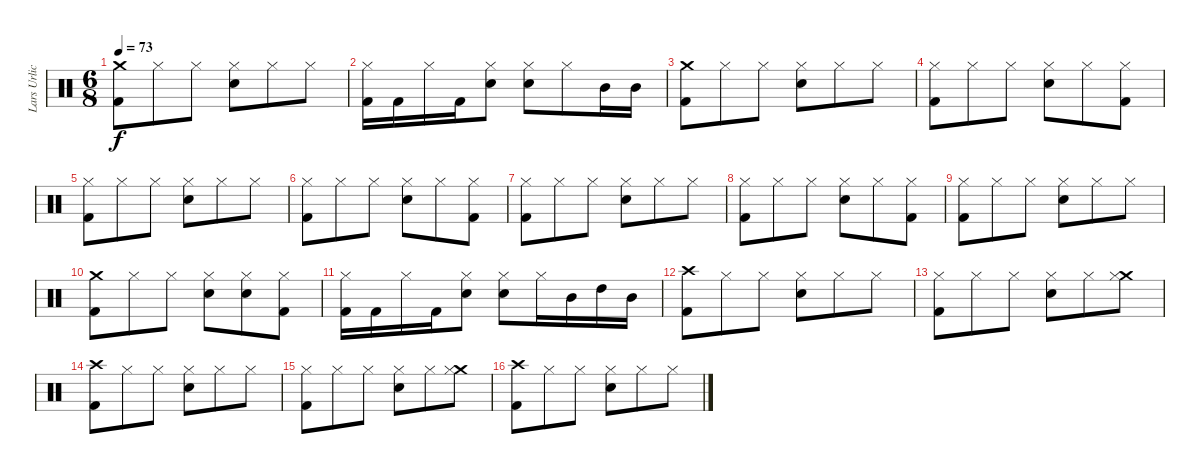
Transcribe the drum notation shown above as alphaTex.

\track ("Lars Urlich" "Lars Urlic") {instrument percussion}
\staff {score}
\articulation defaults
\ts (6 8)
\tempo 73
\clef neutral
\ks c
("Crash medium (hit)" "Kick (hit) 2").8{dy f} "Hi-Hat (closed)".8 "Hi-Hat (closed)".8 ("Hi-Hat (closed)" "Snare (hit) 2").8 "Hi-Hat (closed)".8 "Hi-Hat (closed)".8 |
("Hi-Hat (closed)" "Kick (hit) 2").16 "Kick (hit) 2".16 "Hi-Hat (closed)".16 "Kick (hit) 2".16 ("Hi-Hat (closed)" "Snare (hit) 2").8 ("Hi-Hat (closed)" "Snare (hit) 2").8 "Hi-Hat (closed)".8 "Mid Tom (hit)".16 "Mid Tom (hit)".16 |
("Crash medium (hit)" "Kick (hit) 2").8 "Hi-Hat (closed)".8 "Hi-Hat (closed)".8 ("Hi-Hat (closed)" "Snare (hit) 2").8 "Hi-Hat (closed)".8 "Hi-Hat (closed)".8 |
("Hi-Hat (closed)" "Kick (hit) 2").8 "Hi-Hat (closed)".8 "Hi-Hat (closed)".8 ("Hi-Hat (closed)" "Snare (hit) 2").8 "Hi-Hat (closed)".8 ("Hi-Hat (closed)" "Kick (hit) 2").8 |
("Hi-Hat (closed)" "Kick (hit) 2").8 "Hi-Hat (closed)".8 "Hi-Hat (closed)".8 ("Hi-Hat (closed)" "Snare (hit) 2").8 "Hi-Hat (closed)".8 "Hi-Hat (closed)".8 |
("Hi-Hat (closed)" "Kick (hit) 2").8 "Hi-Hat (closed)".8 "Hi-Hat (closed)".8 ("Hi-Hat (closed)" "Snare (hit) 2").8 "Hi-Hat (closed)".8 ("Hi-Hat (closed)" "Kick (hit) 2").8 |
("Hi-Hat (closed)" "Kick (hit) 2").8 "Hi-Hat (closed)".8 "Hi-Hat (closed)".8 ("Hi-Hat (closed)" "Snare (hit) 2").8 "Hi-Hat (closed)".8 "Hi-Hat (closed)".8 |
("Hi-Hat (closed)" "Kick (hit) 2").8 "Hi-Hat (closed)".8 "Hi-Hat (closed)".8 ("Hi-Hat (closed)" "Snare (hit) 2").8 "Hi-Hat (closed)".8 ("Hi-Hat (closed)" "Kick (hit) 2").8 |
("Hi-Hat (closed)" "Kick (hit) 2").8 "Hi-Hat (closed)".8 "Hi-Hat (closed)".8 ("Hi-Hat (closed)" "Snare (hit) 2").8 "Hi-Hat (closed)".8 "Hi-Hat (closed)".8 |
("Crash medium (hit)" "Kick (hit) 2").8 "Hi-Hat (closed)".8 "Hi-Hat (closed)".8 ("Hi-Hat (closed)" "Snare (hit) 2").8 ("Hi-Hat (closed)" "Snare (hit) 2").8 ("Hi-Hat (closed)" "Kick (hit) 2").8 |
("Hi-Hat (closed)" "Kick (hit) 2").16 "Kick (hit) 2".16 "Hi-Hat (closed)".16 "Kick (hit) 2".16 ("Hi-Hat (closed)" "Snare (hit) 2").8 ("Hi-Hat (closed)" "Snare (hit) 2").8 "Hi-Hat (closed)".16 "Mid Tom (hit)".16 "High Tom (hit)".16 "Mid Tom (hit)".16 |
("Crash high (hit)" "Kick (hit) 2").8 "Hi-Hat (closed)".8 "Hi-Hat (closed)".8 ("Hi-Hat (closed)" "Snare (hit) 2").8 "Hi-Hat (closed)".8 "Hi-Hat (closed)".8 |
("Hi-Hat (closed)" "Kick (hit) 2").8 "Hi-Hat (closed)".8 "Hi-Hat (closed)".8 ("Hi-Hat (closed)" "Snare (hit) 2").8 "Hi-Hat (closed)".8 ("Crash medium (hit)" "Hi-Hat (closed)").8 |
("Crash high (hit)" "Kick (hit) 2").8 "Hi-Hat (closed)".8 "Hi-Hat (closed)".8 ("Hi-Hat (closed)" "Snare (hit) 2").8 "Hi-Hat (closed)".8 "Hi-Hat (closed)".8 |
("Hi-Hat (closed)" "Kick (hit) 2").8 "Hi-Hat (closed)".8 "Hi-Hat (closed)".8 ("Hi-Hat (closed)" "Snare (hit) 2").8 "Hi-Hat (closed)".8 ("Crash medium (hit)" "Hi-Hat (closed)").8 |
("Crash high (hit)" "Kick (hit) 2").8 "Hi-Hat (closed)".8 "Hi-Hat (closed)".8 ("Hi-Hat (closed)" "Snare (hit) 2").8 "Hi-Hat (closed)".8 "Hi-Hat (closed)".8
